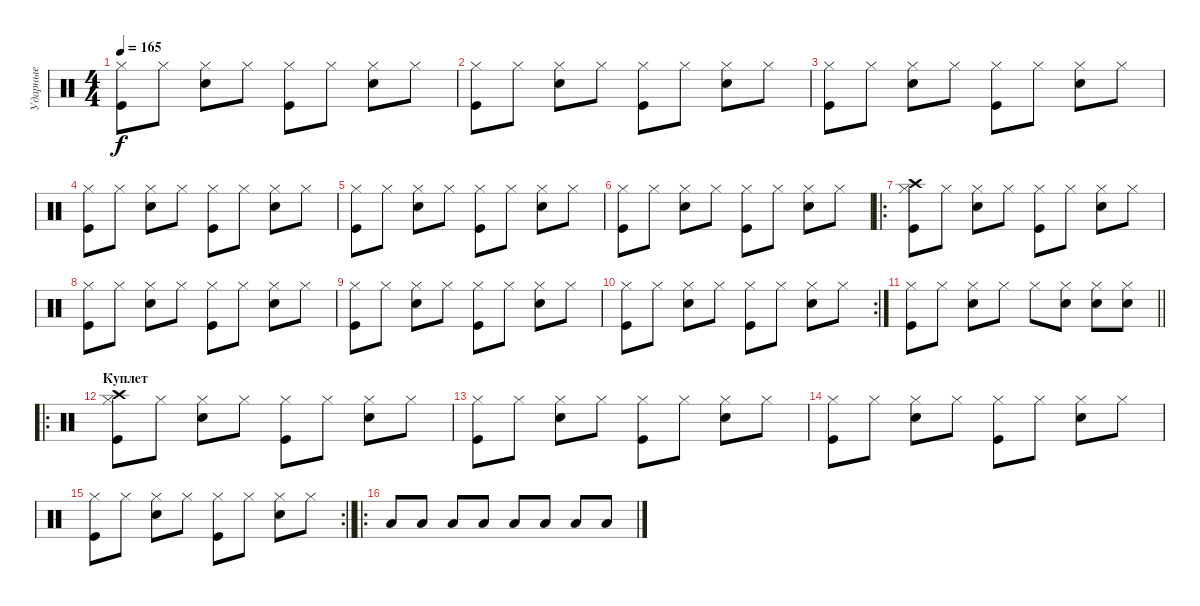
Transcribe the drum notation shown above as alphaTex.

\track ("Ударные" "Ударные") {instrument percussion}
\staff {score}
\articulation defaults
\ts (4 4)
\tempo 165
\clef neutral
\ks c
("Kick (hit)" "Hi-Hat (closed)").8{dy f} "Hi-Hat (closed)".8 ("Snare (hit) 2" "Hi-Hat (closed)").8 "Hi-Hat (closed)".8 ("Kick (hit)" "Hi-Hat (closed)").8 "Hi-Hat (closed)".8 ("Snare (hit) 2" "Hi-Hat (closed)").8 "Hi-Hat (closed)".8 |
("Kick (hit)" "Hi-Hat (closed)").8 "Hi-Hat (closed)".8 ("Snare (hit) 2" "Hi-Hat (closed)").8 "Hi-Hat (closed)".8 ("Kick (hit)" "Hi-Hat (closed)").8 "Hi-Hat (closed)".8 ("Snare (hit) 2" "Hi-Hat (closed)").8 "Hi-Hat (closed)".8 |
("Kick (hit)" "Hi-Hat (closed)").8 "Hi-Hat (closed)".8 ("Snare (hit) 2" "Hi-Hat (closed)").8 "Hi-Hat (closed)".8 ("Kick (hit)" "Hi-Hat (closed)").8 "Hi-Hat (closed)".8 ("Snare (hit) 2" "Hi-Hat (closed)").8 "Hi-Hat (closed)".8 |
("Kick (hit)" "Hi-Hat (closed)").8 "Hi-Hat (closed)".8 ("Snare (hit) 2" "Hi-Hat (closed)").8 "Hi-Hat (closed)".8 ("Kick (hit)" "Hi-Hat (closed)").8 "Hi-Hat (closed)".8 ("Snare (hit) 2" "Hi-Hat (closed)").8 "Hi-Hat (closed)".8 |
("Kick (hit)" "Hi-Hat (closed)").8 "Hi-Hat (closed)".8 ("Snare (hit) 2" "Hi-Hat (closed)").8 "Hi-Hat (closed)".8 ("Kick (hit)" "Hi-Hat (closed)").8 "Hi-Hat (closed)".8 ("Snare (hit) 2" "Hi-Hat (closed)").8 "Hi-Hat (closed)".8 |
("Kick (hit)" "Hi-Hat (closed)").8 "Hi-Hat (closed)".8 ("Snare (hit) 2" "Hi-Hat (closed)").8 "Hi-Hat (closed)".8 ("Kick (hit)" "Hi-Hat (closed)").8 "Hi-Hat (closed)".8 ("Snare (hit) 2" "Hi-Hat (closed)").8 "Hi-Hat (closed)".8 |
\ro
("Kick (hit)" "Hi-Hat (closed)" "Crash high (hit)").8 "Hi-Hat (closed)".8 ("Snare (hit) 2" "Hi-Hat (closed)").8 "Hi-Hat (closed)".8 ("Kick (hit)" "Hi-Hat (closed)").8 "Hi-Hat (closed)".8 ("Snare (hit) 2" "Hi-Hat (closed)").8 "Hi-Hat (closed)".8 |
("Kick (hit)" "Hi-Hat (closed)").8 "Hi-Hat (closed)".8 ("Snare (hit) 2" "Hi-Hat (closed)").8 "Hi-Hat (closed)".8 ("Kick (hit)" "Hi-Hat (closed)").8 "Hi-Hat (closed)".8 ("Snare (hit) 2" "Hi-Hat (closed)").8 "Hi-Hat (closed)".8 |
("Kick (hit)" "Hi-Hat (closed)").8 "Hi-Hat (closed)".8 ("Snare (hit) 2" "Hi-Hat (closed)").8 "Hi-Hat (closed)".8 ("Kick (hit)" "Hi-Hat (closed)").8 "Hi-Hat (closed)".8 ("Snare (hit) 2" "Hi-Hat (closed)").8 "Hi-Hat (closed)".8 |
\rc 2
("Kick (hit)" "Hi-Hat (closed)").8 "Hi-Hat (closed)".8 ("Snare (hit) 2" "Hi-Hat (closed)").8 "Hi-Hat (closed)".8 ("Kick (hit)" "Hi-Hat (closed)").8 "Hi-Hat (closed)".8 ("Snare (hit) 2" "Hi-Hat (closed)").8 "Hi-Hat (closed)".8 |
\barLineRight lightlight
("Kick (hit)" "Hi-Hat (closed)").8 "Hi-Hat (closed)".8 ("Snare (hit) 2" "Hi-Hat (closed)").8 "Hi-Hat (closed)".8 "Hi-Hat (closed)".8 ("Snare (hit) 2" "Hi-Hat (closed)").8 ("Snare (hit) 2" "Hi-Hat (closed)").8 ("Snare (hit) 2" "Hi-Hat (closed)").8 |
\ro
\section ("" "Куплет")
("Kick (hit)" "Hi-Hat (closed)" "Crash high (hit)").8 "Hi-Hat (closed)".8 ("Snare (hit) 2" "Hi-Hat (closed)").8 "Hi-Hat (closed)".8 ("Kick (hit)" "Hi-Hat (closed)").8 "Hi-Hat (closed)".8 ("Snare (hit) 2" "Hi-Hat (closed)").8 "Hi-Hat (closed)".8 |
("Kick (hit)" "Hi-Hat (closed)").8 "Hi-Hat (closed)".8 ("Snare (hit) 2" "Hi-Hat (closed)").8 "Hi-Hat (closed)".8 ("Kick (hit)" "Hi-Hat (closed)").8 "Hi-Hat (closed)".8 ("Snare (hit) 2" "Hi-Hat (closed)").8 "Hi-Hat (closed)".8 |
("Kick (hit)" "Hi-Hat (closed)").8 "Hi-Hat (closed)".8 ("Snare (hit) 2" "Hi-Hat (closed)").8 "Hi-Hat (closed)".8 ("Kick (hit)" "Hi-Hat (closed)").8 "Hi-Hat (closed)".8 ("Snare (hit) 2" "Hi-Hat (closed)").8 "Hi-Hat (closed)".8 |
\rc 2
\barLineRight lightlight
("Kick (hit)" "Hi-Hat (closed)").8 "Hi-Hat (closed)".8 ("Snare (hit) 2" "Hi-Hat (closed)").8 "Hi-Hat (closed)".8 ("Kick (hit)" "Hi-Hat (closed)").8 "Hi-Hat (closed)".8 ("Snare (hit) 2" "Hi-Hat (closed)").8 "Hi-Hat (closed)".8 |
\ro "Low Floor Tom (hit)".8 "Low Floor Tom (hit)".8 "Low Floor Tom (hit)".8 "Low Floor Tom (hit)".8 "Low Floor Tom (hit)".8 "Low Floor Tom (hit)".8 "Low Floor Tom (hit)".8 "Low Floor Tom (hit)".8
